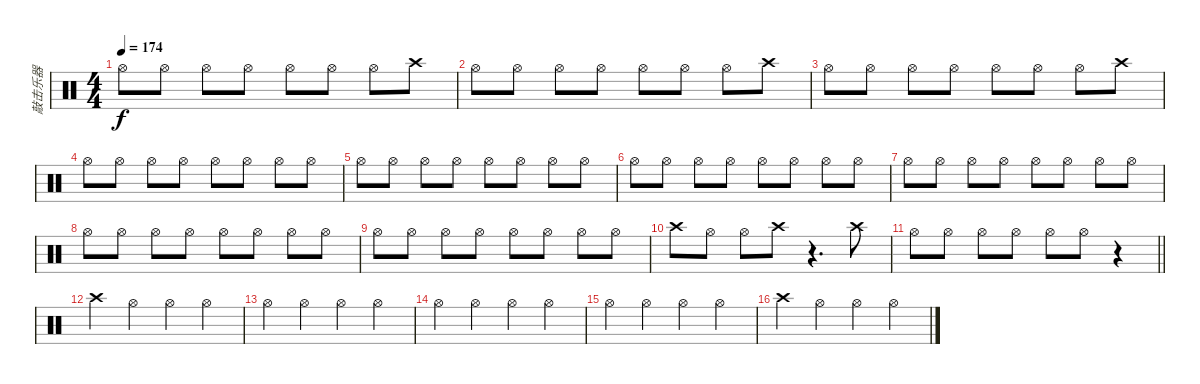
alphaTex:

\track ("敲击乐器" "敲击乐器") {instrument percussion}
\staff {score}
\articulation defaults
\ts (4 4)
\tempo 174
\clef neutral
\ks c "Hi-Hat (open)".8{dy f} "Hi-Hat (open)".8 "Hi-Hat (open)".8 "Hi-Hat (open)".8 "Hi-Hat (open)".8 "Hi-Hat (open)".8 "Hi-Hat (open)".8 "Crash high (hit)".8
|
"Hi-Hat (open)".8 "Hi-Hat (open)".8 "Hi-Hat (open)".8 "Hi-Hat (open)".8 "Hi-Hat (open)".8 "Hi-Hat (open)".8 "Hi-Hat (open)".8 "Crash high (hit)".8 |
"Hi-Hat (open)".8 "Hi-Hat (open)".8 "Hi-Hat (open)".8 "Hi-Hat (open)".8 "Hi-Hat (open)".8 "Hi-Hat (open)".8 "Hi-Hat (open)".8 "Crash high (hit)".8 |
"Hi-Hat (open)".8 "Hi-Hat (open)".8 "Hi-Hat (open)".8 "Hi-Hat (open)".8 "Hi-Hat (open)".8 "Hi-Hat (open)".8 "Hi-Hat (open)".8 "Hi-Hat (open)".8 |
"Hi-Hat (open)".8 "Hi-Hat (open)".8 "Hi-Hat (open)".8 "Hi-Hat (open)".8 "Hi-Hat (open)".8 "Hi-Hat (open)".8 "Hi-Hat (open)".8 "Hi-Hat (open)".8 |
"Hi-Hat (open)".8 "Hi-Hat (open)".8 "Hi-Hat (open)".8 "Hi-Hat (open)".8 "Hi-Hat (open)".8 "Hi-Hat (open)".8 "Hi-Hat (open)".8 "Hi-Hat (open)".8 |
"Hi-Hat (open)".8 "Hi-Hat (open)".8 "Hi-Hat (open)".8 "Hi-Hat (open)".8 "Hi-Hat (open)".8 "Hi-Hat (open)".8 "Hi-Hat (open)".8 "Hi-Hat (open)".8 |
"Hi-Hat (open)".8 "Hi-Hat (open)".8 "Hi-Hat (open)".8 "Hi-Hat (open)".8 "Hi-Hat (open)".8 "Hi-Hat (open)".8 "Hi-Hat (open)".8 "Hi-Hat (open)".8 |
"Hi-Hat (open)".8 "Hi-Hat (open)".8 "Hi-Hat (open)".8 "Hi-Hat (open)".8 "Hi-Hat (open)".8 "Hi-Hat (open)".8 "Hi-Hat (open)".8 "Hi-Hat (open)".8 |
"Crash high (hit)".8 "Hi-Hat (open)".8 "Hi-Hat (open)".8 "Crash high (hit)".8 r.4{d} "Crash high (hit)".8 |
\barLineRight lightlight "Hi-Hat (open)".8 "Hi-Hat (open)".8 "Hi-Hat (open)".8 "Hi-Hat (open)".8 "Hi-Hat (open)".8 "Hi-Hat (open)".8
r.4 |
"Crash high (hit)".4 "Hi-Hat (open)".4 "Hi-Hat (open)".4 "Hi-Hat (open)".4 |
"Hi-Hat (open)".4 "Hi-Hat (open)".4 "Hi-Hat (open)".4 "Hi-Hat (open)".4 |
"Hi-Hat (open)".4 "Hi-Hat (open)".4 "Hi-Hat (open)".4 "Hi-Hat (open)".4 |
"Hi-Hat (open)".4 "Hi-Hat (open)".4 "Hi-Hat (open)".4 "Hi-Hat (open)".4 |
"Crash high (hit)".4 "Hi-Hat (open)".4 "Hi-Hat (open)".4 "Hi-Hat (open)".4
